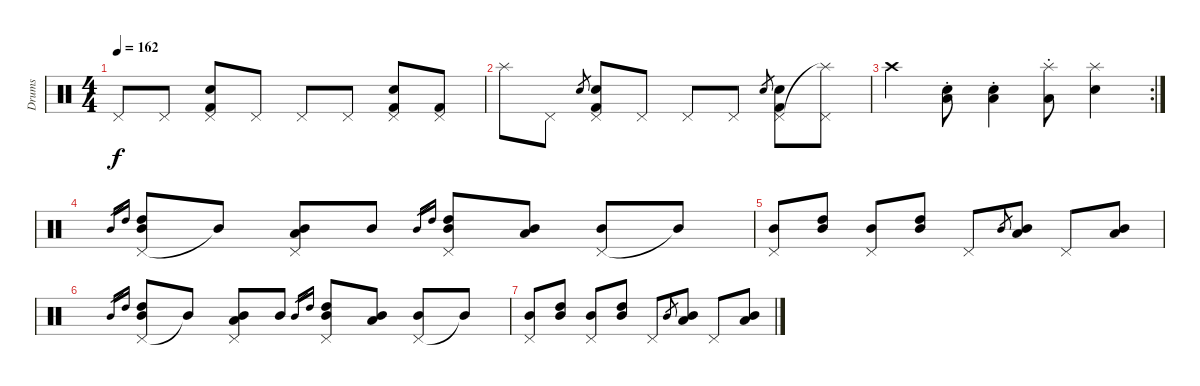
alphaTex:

\track ("Drums" "Drums") {instrument percussion}
\staff {score}
\articulation defaults
\ts (4 4)
\tempo 162
\clef neutral
\ks c "Pedal Hi-Hat (hit)".8{dy f} "Pedal Hi-Hat (hit)".8
("Pedal Hi-Hat (hit)" "Snare (hit) 2" "Kick (hit) 2").8 "Pedal Hi-Hat (hit)".8 "Pedal Hi-Hat (hit)".8 "Pedal Hi-Hat (hit)".8 ("Pedal Hi-Hat (hit)" "Snare (hit) 2" "Kick (hit) 2").8 ("Pedal Hi-Hat (hit)" "Kick (hit) 2").8 |
"Splash (hit)".8 "Pedal Hi-Hat (hit)".8 "Snare (hit) 2".8{gr} ("Pedal Hi-Hat (hit)" "Snare (hit) 2" "Kick (hit) 2").8 "Pedal Hi-Hat (hit)".8 "Pedal Hi-Hat (hit)".8 "Pedal Hi-Hat (hit)".8 "Snare (hit) 2".8{gr} ("Pedal Hi-Hat (hit)" "Snare (hit) 2" "Kick (hit) 2").8 ("Splash (hit)"{t} "Pedal Hi-Hat (hit)").8 |
\rc 2 "Crash high (hit)".4
("Low Floor Tom (hit)"{st} "Snare (hit) 2").8 ("Low Tom (hit)"{st} "Snare (hit) 2").4 ("Splash (hit)" "Low Floor Tom (hit)"{st}).8 ("Splash (hit)" "Snare (hit) 2").4 |
"Mid Tom (hit)".16{gr} "High Tom (hit)".16{gr} ("Pedal Hi-Hat (hit)" "Mid Tom (hit)" "High Tom (hit)").8 "Mid Tom (hit)"{t}.8 ("Pedal Hi-Hat (hit)" "Mid Tom (hit)" "Low Tom (hit)").8 "Mid Tom (hit)".8 "Mid Tom (hit)".16{gr} "High Tom (hit)".16{gr} ("Pedal Hi-Hat (hit)" "Mid Tom (hit)" "High Tom (hit)").8 ("Mid Tom (hit)" "Low Tom (hit)").8 ("Pedal Hi-Hat (hit)" "Mid Tom (hit)").8 "Mid Tom (hit)"{t}.8 |
("Pedal Hi-Hat (hit)" "Mid Tom (hit)").8 ("Mid Tom (hit)" "High Tom (hit)").8 ("Pedal Hi-Hat (hit)" "Mid Tom (hit)").8 ("Mid Tom (hit)" "High Tom (hit)").8 "Pedal Hi-Hat (hit)".8 "Mid Tom (hit)".8{gr} ("Mid Tom (hit)" "Low Tom (hit)").8 "Pedal Hi-Hat (hit)".8 ("Mid Tom (hit)" "Low Tom (hit)").8 |
"Mid Tom (hit)".16{gr} "High Tom (hit)".16{gr} ("Pedal Hi-Hat (hit)" "Mid Tom (hit)" "High Tom (hit)").8 "Mid Tom (hit)"{t}.8 ("Pedal Hi-Hat (hit)" "Mid Tom (hit)" "Low Tom (hit)").8 "Mid Tom (hit)".8 "Mid Tom (hit)".16{gr} "High Tom (hit)".16{gr} ("Pedal Hi-Hat (hit)" "Mid Tom (hit)" "High Tom (hit)").8 ("Mid Tom (hit)" "Low Tom (hit)").8 ("Pedal Hi-Hat (hit)" "Mid Tom (hit)").8 "Mid Tom (hit)"{t}.8 |
("Pedal Hi-Hat (hit)" "Mid Tom (hit)").8 ("Mid Tom (hit)" "High Tom (hit)").8 ("Pedal Hi-Hat (hit)" "Mid Tom (hit)").8 ("Mid Tom (hit)" "High Tom (hit)").8 "Pedal Hi-Hat (hit)".8 "Mid Tom (hit)".8{gr} ("Mid Tom (hit)" "Low Tom (hit)").8 "Pedal Hi-Hat (hit)".8 ("Mid Tom (hit)" "Low Tom (hit)").8
